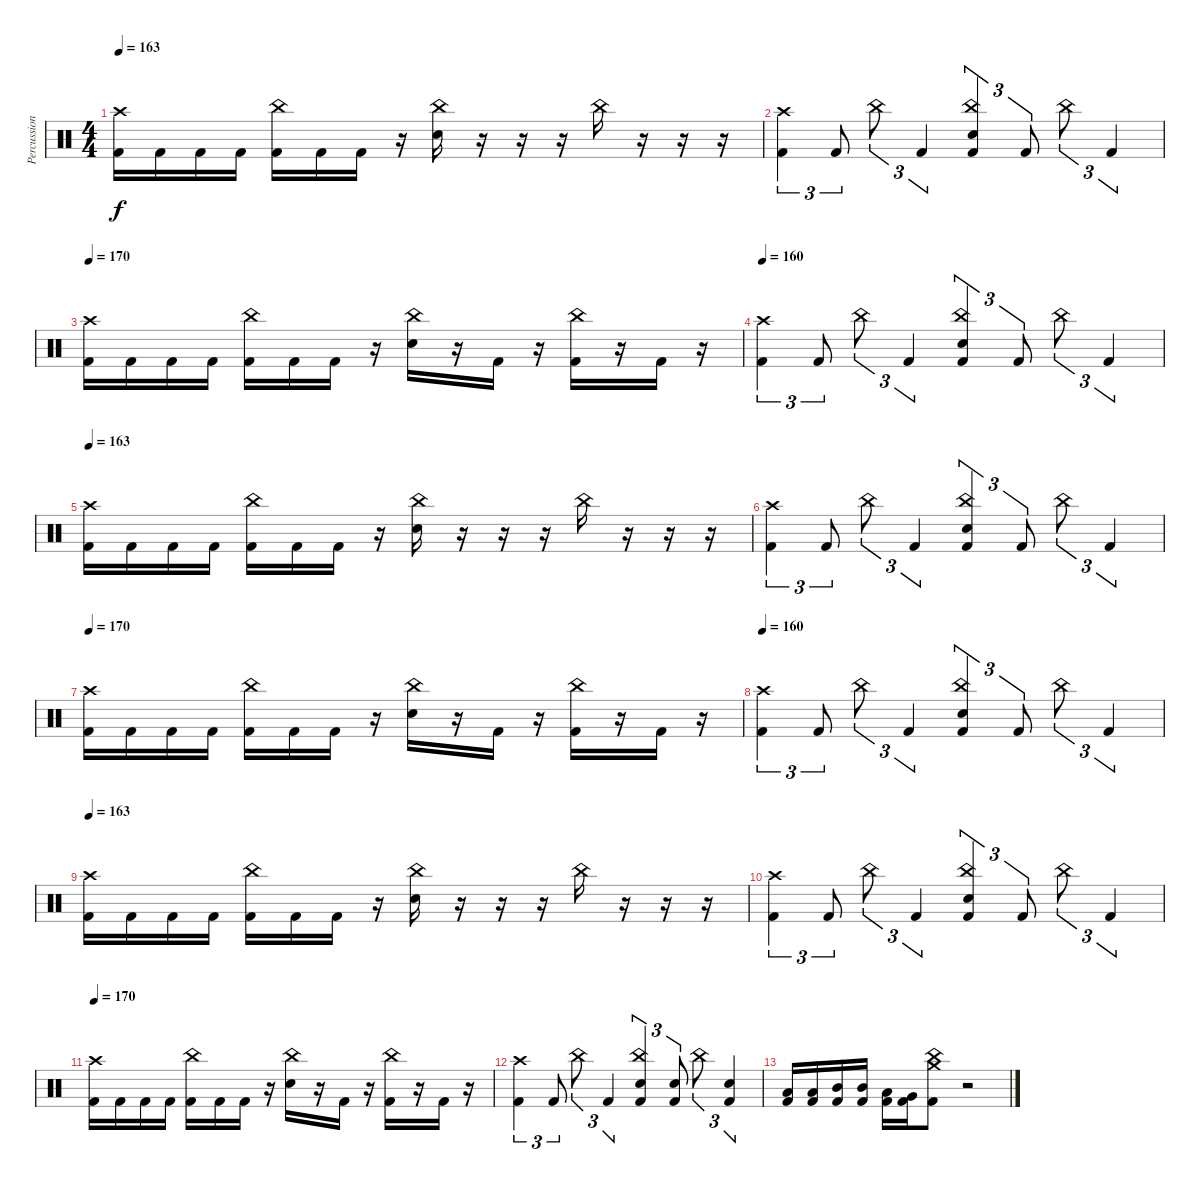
\track ("Percussion" "Percussion") {instrument percussion}
\staff {score}
\articulation defaults
\ts (4 4)
\tempo 163
\clef neutral
\ks c
("Crash high (hit)" "Kick (hit) 2").16{dy f} "Kick (hit) 2".16 "Kick (hit) 2".16 "Kick (hit) 2".16 ("China (hit)" "Kick (hit) 2").16 "Kick (hit) 2".16 "Kick (hit) 2".16 r.16 ("China (hit)" "Electric Snare (hit)").16 r.16 r.16 r.16 "China (hit)".16 r.16 r.16 r.16 |
("Crash high (hit)" "Kick (hit) 2").4{tu (3 2)} "Kick (hit) 2".8{tu (3 2)} "China (hit)".8{tu (3 2)} "Kick (hit) 2".4{tu (3 2)} ("China (hit)" "Electric Snare (hit)" "Kick (hit) 2").4{tu (3 2)} "Kick (hit) 2".8{tu (3 2)} "China (hit)".8{tu (3 2)} "Kick (hit) 2".4{tu (3 2)} |
\tempo 170
("Crash high (hit)" "Kick (hit) 2").16 "Kick (hit) 2".16 "Kick (hit) 2".16 "Kick (hit) 2".16 ("China (hit)" "Kick (hit) 2").16 "Kick (hit) 2".16 "Kick (hit) 2".16 r.16 ("China (hit)" "Electric Snare (hit)").16 r.16 "Kick (hit) 2".16 r.16 ("China (hit)" "Kick (hit) 2").16 r.16 "Kick (hit) 2".16 r.16 |
\tempo 160
("Crash high (hit)" "Kick (hit) 2").4{tu (3 2)} "Kick (hit) 2".8{tu (3 2)} "China (hit)".8{tu (3 2)} "Kick (hit) 2".4{tu (3 2)} ("China (hit)" "Electric Snare (hit)" "Kick (hit) 2").4{tu (3 2)} "Kick (hit) 2".8{tu (3 2)} "China (hit)".8{tu (3 2)} "Kick (hit) 2".4{tu (3 2)} |
\tempo 163
("Crash high (hit)" "Kick (hit) 2").16 "Kick (hit) 2".16 "Kick (hit) 2".16 "Kick (hit) 2".16 ("China (hit)" "Kick (hit) 2").16 "Kick (hit) 2".16 "Kick (hit) 2".16 r.16 ("China (hit)" "Electric Snare (hit)").16 r.16 r.16 r.16 "China (hit)".16 r.16 r.16 r.16 |
("Crash high (hit)" "Kick (hit) 2").4{tu (3 2)} "Kick (hit) 2".8{tu (3 2)} "China (hit)".8{tu (3 2)} "Kick (hit) 2".4{tu (3 2)} ("China (hit)" "Electric Snare (hit)" "Kick (hit) 2").4{tu (3 2)} "Kick (hit) 2".8{tu (3 2)} "China (hit)".8{tu (3 2)} "Kick (hit) 2".4{tu (3 2)} |
\tempo 170
("Crash high (hit)" "Kick (hit) 2").16 "Kick (hit) 2".16 "Kick (hit) 2".16 "Kick (hit) 2".16 ("China (hit)" "Kick (hit) 2").16 "Kick (hit) 2".16 "Kick (hit) 2".16 r.16 ("China (hit)" "Electric Snare (hit)").16 r.16 "Kick (hit) 2".16 r.16 ("China (hit)" "Kick (hit) 2").16 r.16 "Kick (hit) 2".16 r.16 |
\tempo 160
("Crash high (hit)" "Kick (hit) 2").4{tu (3 2)} "Kick (hit) 2".8{tu (3 2)} "China (hit)".8{tu (3 2)} "Kick (hit) 2".4{tu (3 2)} ("China (hit)" "Electric Snare (hit)" "Kick (hit) 2").4{tu (3 2)} "Kick (hit) 2".8{tu (3 2)} "China (hit)".8{tu (3 2)} "Kick (hit) 2".4{tu (3 2)} |
\tempo 163
("Crash high (hit)" "Kick (hit) 2").16 "Kick (hit) 2".16 "Kick (hit) 2".16 "Kick (hit) 2".16 ("China (hit)" "Kick (hit) 2").16 "Kick (hit) 2".16 "Kick (hit) 2".16 r.16 ("China (hit)" "Electric Snare (hit)").16 r.16 r.16 r.16 "China (hit)".16 r.16 r.16 r.16 |
("Crash high (hit)" "Kick (hit) 2").4{tu (3 2)} "Kick (hit) 2".8{tu (3 2)} "China (hit)".8{tu (3 2)} "Kick (hit) 2".4{tu (3 2)} ("China (hit)" "Electric Snare (hit)" "Kick (hit) 2").4{tu (3 2)} "Kick (hit) 2".8{tu (3 2)} "China (hit)".8{tu (3 2)} "Kick (hit) 2".4{tu (3 2)} |
\tempo 170
("Crash high (hit)" "Kick (hit) 2").16 "Kick (hit) 2".16 "Kick (hit) 2".16 "Kick (hit) 2".16 ("China (hit)" "Kick (hit) 2").16 "Kick (hit) 2".16 "Kick (hit) 2".16 r.16 ("China (hit)" "Electric Snare (hit)").16 r.16 "Kick (hit) 2".16 r.16 ("China (hit)" "Kick (hit) 2").16 r.16 "Kick (hit) 2".16 r.16 |
("Crash high (hit)" "Kick (hit) 2").4{tu (3 2)} "Kick (hit) 2".8{tu (3 2)} "China (hit)".8{tu (3 2)} "Kick (hit) 2".4{tu (3 2)} ("China (hit)" "Electric Snare (hit)" "Kick (hit) 2").4{tu (3 2)} ("Electric Snare (hit)" "Kick (hit) 2").8{tu (3 2)} "China (hit)".8{tu (3 2)} ("Electric Snare (hit)" "Kick (hit) 2").4{tu (3 2)} |
("Low Floor Tom (hit)" "Kick (hit) 2").16 ("Low Floor Tom (hit)" "Kick (hit) 2").16 ("Mid Tom (hit)" "Kick (hit) 2").16 ("Mid Tom (hit)" "Kick (hit) 2").16 ("Low Tom (hit)" "Kick (hit) 2").16 ("Very Low Tom (hit)" "Kick (hit) 2").16 ("China (hit)" "Crash medium (hit)" "Kick (hit) 2").8 r.2
